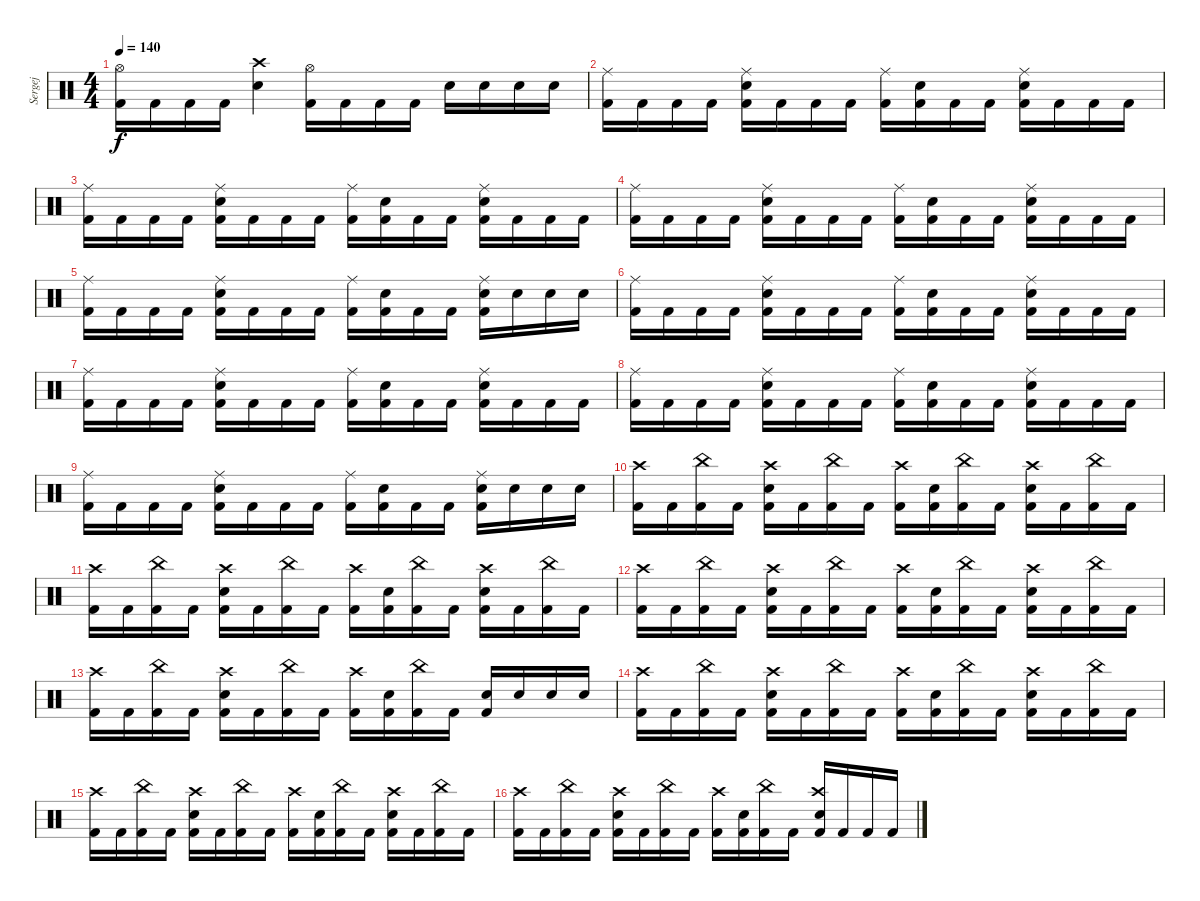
\track ("Sergej" "Sergej") {instrument percussion}
\staff {score}
\articulation defaults
\ts (4 4)
\tempo 140
\clef neutral
\ks c
("Hi-Hat (open)" "Kick (hit) 2").16{dy f} "Kick (hit) 2".16 "Kick (hit) 2".16 "Kick (hit) 2".16 ("Crash high (hit)" "Snare (hit) 2").4 ("Hi-Hat (open)" "Kick (hit) 2").16 "Kick (hit) 2".16 "Kick (hit) 2".16 "Kick (hit) 2".16 "Snare (hit) 2".16 "Snare (hit) 2".16 "Snare (hit) 2".16 "Snare (hit) 2".16 |
("Ride (middle)" "Kick (hit) 2").16 "Kick (hit) 2".16 "Kick (hit) 2".16 "Kick (hit) 2".16 ("Ride (middle)" "Snare (hit) 2" "Kick (hit) 2").16 "Kick (hit) 2".16 "Kick (hit) 2".16 "Kick (hit) 2".16 ("Ride (middle)" "Kick (hit) 2").16 ("Snare (hit) 2" "Kick (hit) 2").16 "Kick (hit) 2".16 "Kick (hit) 2".16 ("Ride (middle)" "Snare (hit) 2" "Kick (hit) 2").16 "Kick (hit) 2".16 "Kick (hit) 2".16 "Kick (hit) 2".16 |
("Ride (middle)" "Kick (hit) 2").16 "Kick (hit) 2".16 "Kick (hit) 2".16 "Kick (hit) 2".16 ("Ride (middle)" "Snare (hit) 2" "Kick (hit) 2").16 "Kick (hit) 2".16 "Kick (hit) 2".16 "Kick (hit) 2".16 ("Ride (middle)" "Kick (hit) 2").16 ("Snare (hit) 2" "Kick (hit) 2").16 "Kick (hit) 2".16 "Kick (hit) 2".16 ("Ride (middle)" "Snare (hit) 2" "Kick (hit) 2").16 "Kick (hit) 2".16 "Kick (hit) 2".16 "Kick (hit) 2".16 |
("Ride (middle)" "Kick (hit) 2").16 "Kick (hit) 2".16 "Kick (hit) 2".16 "Kick (hit) 2".16 ("Ride (middle)" "Snare (hit) 2" "Kick (hit) 2").16 "Kick (hit) 2".16 "Kick (hit) 2".16 "Kick (hit) 2".16 ("Ride (middle)" "Kick (hit) 2").16 ("Snare (hit) 2" "Kick (hit) 2").16 "Kick (hit) 2".16 "Kick (hit) 2".16 ("Ride (middle)" "Snare (hit) 2" "Kick (hit) 2").16 "Kick (hit) 2".16 "Kick (hit) 2".16 "Kick (hit) 2".16 |
("Ride (middle)" "Kick (hit) 2").16 "Kick (hit) 2".16 "Kick (hit) 2".16 "Kick (hit) 2".16 ("Ride (middle)" "Snare (hit) 2" "Kick (hit) 2").16 "Kick (hit) 2".16 "Kick (hit) 2".16 "Kick (hit) 2".16 ("Ride (middle)" "Kick (hit) 2").16 ("Snare (hit) 2" "Kick (hit) 2").16 "Kick (hit) 2".16 "Kick (hit) 2".16 ("Ride (middle)" "Snare (hit) 2" "Kick (hit) 2").16 "Snare (hit) 2".16 "Snare (hit) 2".16 "Snare (hit) 2".16 |
("Ride (middle)" "Kick (hit) 2").16 "Kick (hit) 2".16 "Kick (hit) 2".16 "Kick (hit) 2".16 ("Ride (middle)" "Snare (hit) 2" "Kick (hit) 2").16 "Kick (hit) 2".16 "Kick (hit) 2".16 "Kick (hit) 2".16 ("Ride (middle)" "Kick (hit) 2").16 ("Snare (hit) 2" "Kick (hit) 2").16 "Kick (hit) 2".16 "Kick (hit) 2".16 ("Ride (middle)" "Snare (hit) 2" "Kick (hit) 2").16 "Kick (hit) 2".16 "Kick (hit) 2".16 "Kick (hit) 2".16 |
("Ride (middle)" "Kick (hit) 2").16 "Kick (hit) 2".16 "Kick (hit) 2".16 "Kick (hit) 2".16 ("Ride (middle)" "Snare (hit) 2" "Kick (hit) 2").16 "Kick (hit) 2".16 "Kick (hit) 2".16 "Kick (hit) 2".16 ("Ride (middle)" "Kick (hit) 2").16 ("Snare (hit) 2" "Kick (hit) 2").16 "Kick (hit) 2".16 "Kick (hit) 2".16 ("Ride (middle)" "Snare (hit) 2" "Kick (hit) 2").16 "Kick (hit) 2".16 "Kick (hit) 2".16 "Kick (hit) 2".16 |
("Ride (middle)" "Kick (hit) 2").16 "Kick (hit) 2".16 "Kick (hit) 2".16 "Kick (hit) 2".16 ("Ride (middle)" "Snare (hit) 2" "Kick (hit) 2").16 "Kick (hit) 2".16 "Kick (hit) 2".16 "Kick (hit) 2".16 ("Ride (middle)" "Kick (hit) 2").16 ("Snare (hit) 2" "Kick (hit) 2").16 "Kick (hit) 2".16 "Kick (hit) 2".16 ("Ride (middle)" "Snare (hit) 2" "Kick (hit) 2").16 "Kick (hit) 2".16 "Kick (hit) 2".16 "Kick (hit) 2".16 |
("Ride (middle)" "Kick (hit) 2").16 "Kick (hit) 2".16 "Kick (hit) 2".16 "Kick (hit) 2".16 ("Ride (middle)" "Snare (hit) 2" "Kick (hit) 2").16 "Kick (hit) 2".16 "Kick (hit) 2".16 "Kick (hit) 2".16 ("Ride (middle)" "Kick (hit) 2").16 ("Snare (hit) 2" "Kick (hit) 2").16 "Kick (hit) 2".16 "Kick (hit) 2".16 ("Ride (middle)" "Snare (hit) 2" "Kick (hit) 2").16 "Snare (hit) 2".16 "Snare (hit) 2".16 "Snare (hit) 2".16 |
("Crash high (hit)" "Kick (hit) 2").16 "Kick (hit) 2".16 ("China (hit)" "Kick (hit) 2").16 "Kick (hit) 2".16 ("Crash high (hit)" "Snare (hit) 2" "Kick (hit) 2").16 "Kick (hit) 2".16 ("China (hit)" "Kick (hit) 2").16 "Kick (hit) 2".16 ("Crash high (hit)" "Kick (hit) 2").16 ("Snare (hit) 2" "Kick (hit) 2").16 ("China (hit)" "Kick (hit) 2").16 "Kick (hit) 2".16 ("Crash high (hit)" "Snare (hit) 2" "Kick (hit) 2").16 "Kick (hit) 2".16 ("China (hit)" "Kick (hit) 2").16 "Kick (hit) 2".16 |
("Crash high (hit)" "Kick (hit) 2").16 "Kick (hit) 2".16 ("China (hit)" "Kick (hit) 2").16 "Kick (hit) 2".16 ("Crash high (hit)" "Snare (hit) 2" "Kick (hit) 2").16 "Kick (hit) 2".16 ("China (hit)" "Kick (hit) 2").16 "Kick (hit) 2".16 ("Crash high (hit)" "Kick (hit) 2").16 ("Snare (hit) 2" "Kick (hit) 2").16 ("China (hit)" "Kick (hit) 2").16 "Kick (hit) 2".16 ("Crash high (hit)" "Snare (hit) 2" "Kick (hit) 2").16 "Kick (hit) 2".16 ("China (hit)" "Kick (hit) 2").16 "Kick (hit) 2".16 |
("Crash high (hit)" "Kick (hit) 2").16 "Kick (hit) 2".16 ("China (hit)" "Kick (hit) 2").16 "Kick (hit) 2".16 ("Crash high (hit)" "Snare (hit) 2" "Kick (hit) 2").16 "Kick (hit) 2".16 ("China (hit)" "Kick (hit) 2").16 "Kick (hit) 2".16 ("Crash high (hit)" "Kick (hit) 2").16 ("Snare (hit) 2" "Kick (hit) 2").16 ("China (hit)" "Kick (hit) 2").16 "Kick (hit) 2".16 ("Crash high (hit)" "Snare (hit) 2" "Kick (hit) 2").16 "Kick (hit) 2".16 ("China (hit)" "Kick (hit) 2").16 "Kick (hit) 2".16 |
("Crash high (hit)" "Kick (hit) 2").16 "Kick (hit) 2".16 ("China (hit)" "Kick (hit) 2").16 "Kick (hit) 2".16 ("Crash high (hit)" "Snare (hit) 2" "Kick (hit) 2").16 "Kick (hit) 2".16 ("China (hit)" "Kick (hit) 2").16 "Kick (hit) 2".16 ("Crash high (hit)" "Kick (hit) 2").16 ("Snare (hit) 2" "Kick (hit) 2").16 ("China (hit)" "Kick (hit) 2").16 "Kick (hit) 2".16 ("Snare (hit) 2" "Kick (hit) 2").16 "Snare (hit) 2".16 "Snare (hit) 2".16 "Snare (hit) 2".16 |
("Crash high (hit)" "Kick (hit) 2").16 "Kick (hit) 2".16 ("China (hit)" "Kick (hit) 2").16 "Kick (hit) 2".16 ("Crash high (hit)" "Snare (hit) 2" "Kick (hit) 2").16 "Kick (hit) 2".16 ("China (hit)" "Kick (hit) 2").16 "Kick (hit) 2".16 ("Crash high (hit)" "Kick (hit) 2").16 ("Snare (hit) 2" "Kick (hit) 2").16 ("China (hit)" "Kick (hit) 2").16 "Kick (hit) 2".16 ("Crash high (hit)" "Snare (hit) 2" "Kick (hit) 2").16 "Kick (hit) 2".16 ("China (hit)" "Kick (hit) 2").16 "Kick (hit) 2".16 |
("Crash high (hit)" "Kick (hit) 2").16 "Kick (hit) 2".16 ("China (hit)" "Kick (hit) 2").16 "Kick (hit) 2".16 ("Crash high (hit)" "Snare (hit) 2" "Kick (hit) 2").16 "Kick (hit) 2".16 ("China (hit)" "Kick (hit) 2").16 "Kick (hit) 2".16 ("Crash high (hit)" "Kick (hit) 2").16 ("Snare (hit) 2" "Kick (hit) 2").16 ("China (hit)" "Kick (hit) 2").16 "Kick (hit) 2".16 ("Crash high (hit)" "Snare (hit) 2" "Kick (hit) 2").16 "Kick (hit) 2".16 ("China (hit)" "Kick (hit) 2").16 "Kick (hit) 2".16 |
("Crash high (hit)" "Kick (hit) 2").16 "Kick (hit) 2".16 ("China (hit)" "Kick (hit) 2").16 "Kick (hit) 2".16 ("Crash high (hit)" "Snare (hit) 2" "Kick (hit) 2").16 "Kick (hit) 2".16 ("China (hit)" "Kick (hit) 2").16 "Kick (hit) 2".16 ("Crash high (hit)" "Kick (hit) 2").16 ("Snare (hit) 2" "Kick (hit) 2").16 ("China (hit)" "Kick (hit) 2").16 "Kick (hit) 2".16 ("Crash high (hit)" "Snare (hit) 2" "Kick (hit) 2").16 "Kick (hit) 2".16 "Kick (hit) 2".16 "Kick (hit) 2".16
